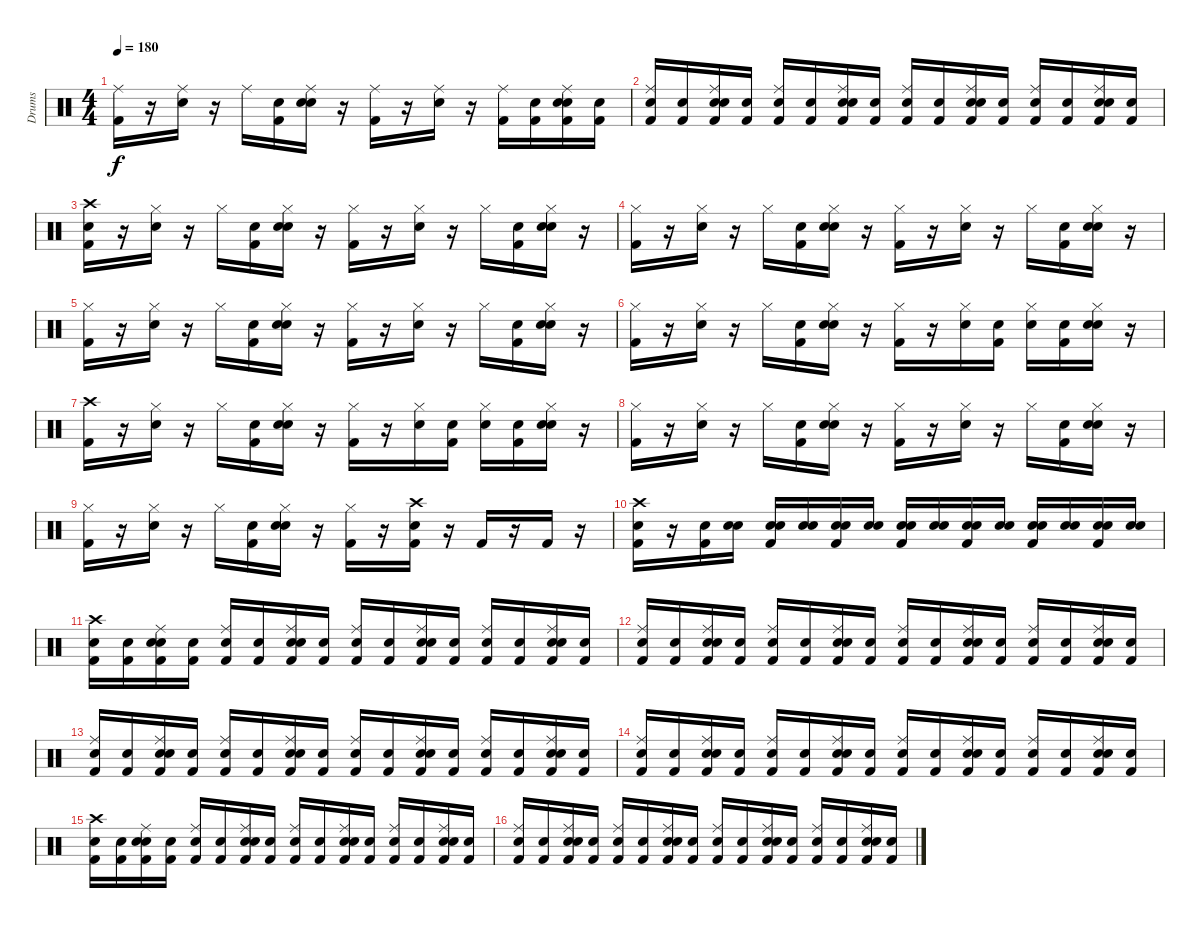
\track ("Drums" "Drums") {instrument percussion}
\staff {score}
\articulation defaults
\ts (4 4)
\tempo 180
\clef neutral
\ks c
("Kick (hit) 2" "Ride (middle)").16{dy f} r.16 ("Snare (hit) 2" "Ride (middle)").16 r.16 "Ride (middle)".16 ("Snare (hit)" "Kick (hit) 2").16 ("Snare (hit)" "Snare (hit) 2" "Ride (middle)").16 r.16 ("Kick (hit) 2" "Ride (middle)").16 r.16 ("Snare (hit) 2" "Ride (middle)").16 r.16 ("Kick (hit) 2" "Ride (middle)").16 ("Snare (hit)" "Kick (hit) 2").16 ("Snare (hit)" "Kick (hit) 2" "Snare (hit) 2" "Ride (middle)").16 ("Snare (hit)" "Kick (hit) 2").16 |
("Snare (hit)" "Kick (hit) 2" "Ride (middle)").16 ("Snare (hit)" "Kick (hit) 2").16 ("Snare (hit)" "Snare (hit) 2" "Kick (hit) 2" "Ride (middle)").16 ("Snare (hit)" "Kick (hit) 2").16 ("Snare (hit)" "Kick (hit) 2" "Ride (middle)").16 ("Snare (hit)" "Kick (hit) 2").16 ("Snare (hit)" "Snare (hit) 2" "Kick (hit) 2" "Ride (middle)").16 ("Snare (hit)" "Kick (hit) 2").16 ("Snare (hit)" "Kick (hit) 2" "Ride (middle)").16 ("Snare (hit)" "Kick (hit) 2").16 ("Snare (hit)" "Snare (hit) 2" "Kick (hit) 2" "Ride (middle)").16 ("Snare (hit)" "Kick (hit) 2").16 ("Snare (hit)" "Kick (hit) 2" "Ride (middle)").16 ("Snare (hit)" "Kick (hit) 2").16 ("Snare (hit)" "Snare (hit) 2" "Kick (hit) 2" "Ride (middle)").16 ("Snare (hit)" "Kick (hit) 2").16 |
("Snare (hit)" "Kick (hit) 2" "Crash high (hit)").16 r.16 ("Snare (hit) 2" "Hi-Hat (closed)").16 r.16 "Hi-Hat (closed)".16 ("Snare (hit)" "Kick (hit) 2").16 ("Snare (hit)" "Snare (hit) 2" "Hi-Hat (closed)").16 r.16 ("Kick (hit) 2" "Hi-Hat (closed)").16 r.16 ("Snare (hit) 2" "Hi-Hat (closed)").16 r.16 "Hi-Hat (closed)".16 ("Snare (hit)" "Kick (hit) 2").16 ("Snare (hit)" "Snare (hit) 2" "Hi-Hat (closed)").16 r.16 |
("Kick (hit) 2" "Hi-Hat (closed)").16 r.16 ("Snare (hit) 2" "Hi-Hat (closed)").16 r.16 "Hi-Hat (closed)".16 ("Snare (hit)" "Kick (hit) 2").16 ("Snare (hit)" "Snare (hit) 2" "Hi-Hat (closed)").16 r.16 ("Kick (hit) 2" "Hi-Hat (closed)").16 r.16 ("Snare (hit) 2" "Hi-Hat (closed)").16 r.16 "Hi-Hat (closed)".16 ("Snare (hit)" "Kick (hit) 2").16 ("Snare (hit)" "Snare (hit) 2" "Hi-Hat (closed)").16 r.16 |
("Kick (hit) 2" "Hi-Hat (closed)").16 r.16 ("Snare (hit) 2" "Hi-Hat (closed)").16 r.16 "Hi-Hat (closed)".16 ("Snare (hit)" "Kick (hit) 2").16 ("Snare (hit)" "Snare (hit) 2" "Hi-Hat (closed)").16 r.16 ("Kick (hit) 2" "Hi-Hat (closed)").16 r.16 ("Snare (hit) 2" "Hi-Hat (closed)").16 r.16 "Hi-Hat (closed)".16 ("Snare (hit)" "Kick (hit) 2").16 ("Snare (hit)" "Snare (hit) 2" "Hi-Hat (closed)").16 r.16 |
("Kick (hit) 2" "Hi-Hat (closed)").16 r.16 ("Snare (hit) 2" "Hi-Hat (closed)").16 r.16 "Hi-Hat (closed)".16 ("Snare (hit)" "Kick (hit) 2").16 ("Snare (hit)" "Snare (hit) 2" "Hi-Hat (closed)").16 r.16 ("Kick (hit) 2" "Hi-Hat (closed)").16 r.16 ("Snare (hit) 2" "Hi-Hat (closed)").16 ("Snare (hit)" "Kick (hit) 2").16 ("Snare (hit)" "Hi-Hat (closed)").16 ("Snare (hit)" "Kick (hit) 2").16 ("Snare (hit)" "Snare (hit) 2" "Hi-Hat (closed)").16 r.16 |
("Kick (hit) 2" "Crash high (hit)").16 r.16 ("Snare (hit) 2" "Hi-Hat (closed)").16 r.16 "Hi-Hat (closed)".16 ("Snare (hit)" "Kick (hit) 2").16 ("Snare (hit)" "Snare (hit) 2" "Hi-Hat (closed)").16 r.16 ("Kick (hit) 2" "Hi-Hat (closed)").16 r.16 ("Snare (hit) 2" "Hi-Hat (closed)").16 ("Snare (hit)" "Kick (hit) 2").16 ("Snare (hit)" "Hi-Hat (closed)").16 ("Snare (hit)" "Kick (hit) 2").16 ("Snare (hit)" "Snare (hit) 2" "Hi-Hat (closed)").16 r.16 |
("Kick (hit) 2" "Hi-Hat (closed)").16 r.16 ("Snare (hit) 2" "Hi-Hat (closed)").16 r.16 "Hi-Hat (closed)".16 ("Snare (hit)" "Kick (hit) 2").16 ("Snare (hit)" "Snare (hit) 2" "Hi-Hat (closed)").16 r.16 ("Kick (hit) 2" "Hi-Hat (closed)").16 r.16 ("Snare (hit) 2" "Hi-Hat (closed)").16 r.16 "Hi-Hat (closed)".16 ("Snare (hit)" "Kick (hit) 2").16 ("Snare (hit)" "Snare (hit) 2" "Hi-Hat (closed)").16 r.16 |
("Kick (hit) 2" "Hi-Hat (closed)").16 r.16 ("Snare (hit) 2" "Hi-Hat (closed)").16 r.16 "Hi-Hat (closed)".16 ("Snare (hit)" "Kick (hit) 2").16 ("Snare (hit)" "Snare (hit) 2" "Hi-Hat (closed)").16 r.16 ("Kick (hit) 2" "Hi-Hat (closed)").16 r.16 ("Snare (hit) 2" "Kick (hit) 2" "Crash high (hit)").16 r.16 "Kick (hit) 2".16 r.16 "Kick (hit) 2".16 r.16 |
("Snare (hit) 2" "Kick (hit) 2" "Crash high (hit)").16 r.16 ("Snare (hit) 2" "Kick (hit) 2").16 ("Snare (hit)" "Snare (hit) 2").16 ("Snare (hit)" "Snare (hit) 2" "Kick (hit) 2").16 ("Snare (hit)" "Snare (hit) 2").16 ("Snare (hit)" "Snare (hit) 2" "Kick (hit) 2").16 ("Snare (hit)" "Snare (hit) 2").16 ("Snare (hit)" "Snare (hit) 2" "Kick (hit) 2").16 ("Snare (hit)" "Snare (hit) 2").16 ("Snare (hit)" "Snare (hit) 2" "Kick (hit) 2").16 ("Snare (hit)" "Snare (hit) 2").16 ("Snare (hit)" "Snare (hit) 2" "Kick (hit) 2").16 ("Snare (hit)" "Snare (hit) 2").16 ("Snare (hit)" "Snare (hit) 2" "Kick (hit) 2").16 ("Snare (hit)" "Snare (hit) 2").16 |
("Snare (hit)" "Kick (hit) 2" "Crash high (hit)").16 ("Snare (hit)" "Kick (hit) 2").16 ("Snare (hit)" "Snare (hit) 2" "Kick (hit) 2" "Ride (middle)").16 ("Snare (hit)" "Kick (hit) 2").16 ("Snare (hit)" "Kick (hit) 2" "Ride (middle)").16 ("Snare (hit)" "Kick (hit) 2").16 ("Snare (hit)" "Snare (hit) 2" "Kick (hit) 2" "Ride (middle)").16 ("Snare (hit)" "Kick (hit) 2").16 ("Snare (hit)" "Kick (hit) 2" "Ride (middle)").16 ("Snare (hit)" "Kick (hit) 2").16 ("Snare (hit)" "Snare (hit) 2" "Kick (hit) 2" "Ride (middle)").16 ("Snare (hit)" "Kick (hit) 2").16 ("Snare (hit)" "Kick (hit) 2" "Ride (middle)").16 ("Snare (hit)" "Kick (hit) 2").16 ("Snare (hit)" "Snare (hit) 2" "Kick (hit) 2" "Ride (middle)").16 ("Snare (hit)" "Kick (hit) 2").16 |
("Snare (hit)" "Kick (hit) 2" "Ride (middle)").16 ("Snare (hit)" "Kick (hit) 2").16 ("Snare (hit)" "Snare (hit) 2" "Kick (hit) 2" "Ride (middle)").16 ("Snare (hit)" "Kick (hit) 2").16 ("Snare (hit)" "Kick (hit) 2" "Ride (middle)").16 ("Snare (hit)" "Kick (hit) 2").16 ("Snare (hit)" "Snare (hit) 2" "Kick (hit) 2" "Ride (middle)").16 ("Snare (hit)" "Kick (hit) 2").16 ("Snare (hit)" "Kick (hit) 2" "Ride (middle)").16 ("Snare (hit)" "Kick (hit) 2").16 ("Snare (hit)" "Snare (hit) 2" "Kick (hit) 2" "Ride (middle)").16 ("Snare (hit)" "Kick (hit) 2").16 ("Snare (hit)" "Kick (hit) 2" "Ride (middle)").16 ("Snare (hit)" "Kick (hit) 2").16 ("Snare (hit)" "Snare (hit) 2" "Kick (hit) 2" "Ride (middle)").16 ("Snare (hit)" "Kick (hit) 2").16 |
("Snare (hit)" "Kick (hit) 2" "Ride (middle)").16 ("Snare (hit)" "Kick (hit) 2").16 ("Snare (hit)" "Snare (hit) 2" "Kick (hit) 2" "Ride (middle)").16 ("Snare (hit)" "Kick (hit) 2").16 ("Snare (hit)" "Kick (hit) 2" "Ride (middle)").16 ("Snare (hit)" "Kick (hit) 2").16 ("Snare (hit)" "Snare (hit) 2" "Kick (hit) 2" "Ride (middle)").16 ("Snare (hit)" "Kick (hit) 2").16 ("Snare (hit)" "Kick (hit) 2" "Ride (middle)").16 ("Snare (hit)" "Kick (hit) 2").16 ("Snare (hit)" "Snare (hit) 2" "Kick (hit) 2" "Ride (middle)").16 ("Snare (hit)" "Kick (hit) 2").16 ("Snare (hit)" "Kick (hit) 2" "Ride (middle)").16 ("Snare (hit)" "Kick (hit) 2").16 ("Snare (hit)" "Snare (hit) 2" "Kick (hit) 2" "Ride (middle)").16 ("Snare (hit)" "Kick (hit) 2").16 |
("Snare (hit)" "Kick (hit) 2" "Ride (middle)").16 ("Snare (hit)" "Kick (hit) 2").16 ("Snare (hit)" "Snare (hit) 2" "Kick (hit) 2" "Ride (middle)").16 ("Snare (hit)" "Kick (hit) 2").16 ("Snare (hit)" "Kick (hit) 2" "Ride (middle)").16 ("Snare (hit)" "Kick (hit) 2").16 ("Snare (hit)" "Snare (hit) 2" "Kick (hit) 2" "Ride (middle)").16 ("Snare (hit)" "Kick (hit) 2").16 ("Snare (hit)" "Kick (hit) 2" "Ride (middle)").16 ("Snare (hit)" "Kick (hit) 2").16 ("Snare (hit)" "Snare (hit) 2" "Kick (hit) 2" "Ride (middle)").16 ("Snare (hit)" "Kick (hit) 2").16 ("Snare (hit)" "Kick (hit) 2" "Ride (middle)").16 ("Snare (hit)" "Kick (hit) 2").16 ("Snare (hit)" "Snare (hit) 2" "Kick (hit) 2" "Ride (middle)").16 ("Snare (hit)" "Kick (hit) 2").16 |
("Snare (hit)" "Kick (hit) 2" "Crash high (hit)").16 ("Snare (hit)" "Kick (hit) 2").16 ("Snare (hit)" "Snare (hit) 2" "Kick (hit) 2" "Ride (middle)").16 ("Snare (hit)" "Kick (hit) 2").16 ("Snare (hit)" "Kick (hit) 2" "Ride (middle)").16 ("Snare (hit)" "Kick (hit) 2").16 ("Snare (hit)" "Snare (hit) 2" "Kick (hit) 2" "Ride (middle)").16 ("Snare (hit)" "Kick (hit) 2").16 ("Snare (hit)" "Kick (hit) 2" "Ride (middle)").16 ("Snare (hit)" "Kick (hit) 2").16 ("Snare (hit)" "Snare (hit) 2" "Kick (hit) 2" "Ride (middle)").16 ("Snare (hit)" "Kick (hit) 2").16 ("Snare (hit)" "Kick (hit) 2" "Ride (middle)").16 ("Snare (hit)" "Kick (hit) 2").16 ("Snare (hit)" "Snare (hit) 2" "Kick (hit) 2" "Ride (middle)").16 ("Snare (hit)" "Kick (hit) 2").16 |
("Snare (hit)" "Kick (hit) 2" "Ride (middle)").16 ("Snare (hit)" "Kick (hit) 2").16 ("Snare (hit)" "Snare (hit) 2" "Kick (hit) 2" "Ride (middle)").16 ("Snare (hit)" "Kick (hit) 2").16 ("Snare (hit)" "Kick (hit) 2" "Ride (middle)").16 ("Snare (hit)" "Kick (hit) 2").16 ("Snare (hit)" "Snare (hit) 2" "Kick (hit) 2" "Ride (middle)").16 ("Snare (hit)" "Kick (hit) 2").16 ("Snare (hit)" "Kick (hit) 2" "Ride (middle)").16 ("Snare (hit)" "Kick (hit) 2").16 ("Snare (hit)" "Snare (hit) 2" "Kick (hit) 2" "Ride (middle)").16 ("Snare (hit)" "Kick (hit) 2").16 ("Snare (hit)" "Kick (hit) 2" "Ride (middle)").16 ("Snare (hit)" "Kick (hit) 2").16 ("Snare (hit)" "Snare (hit) 2" "Kick (hit) 2" "Ride (middle)").16 ("Snare (hit)" "Kick (hit) 2").16
